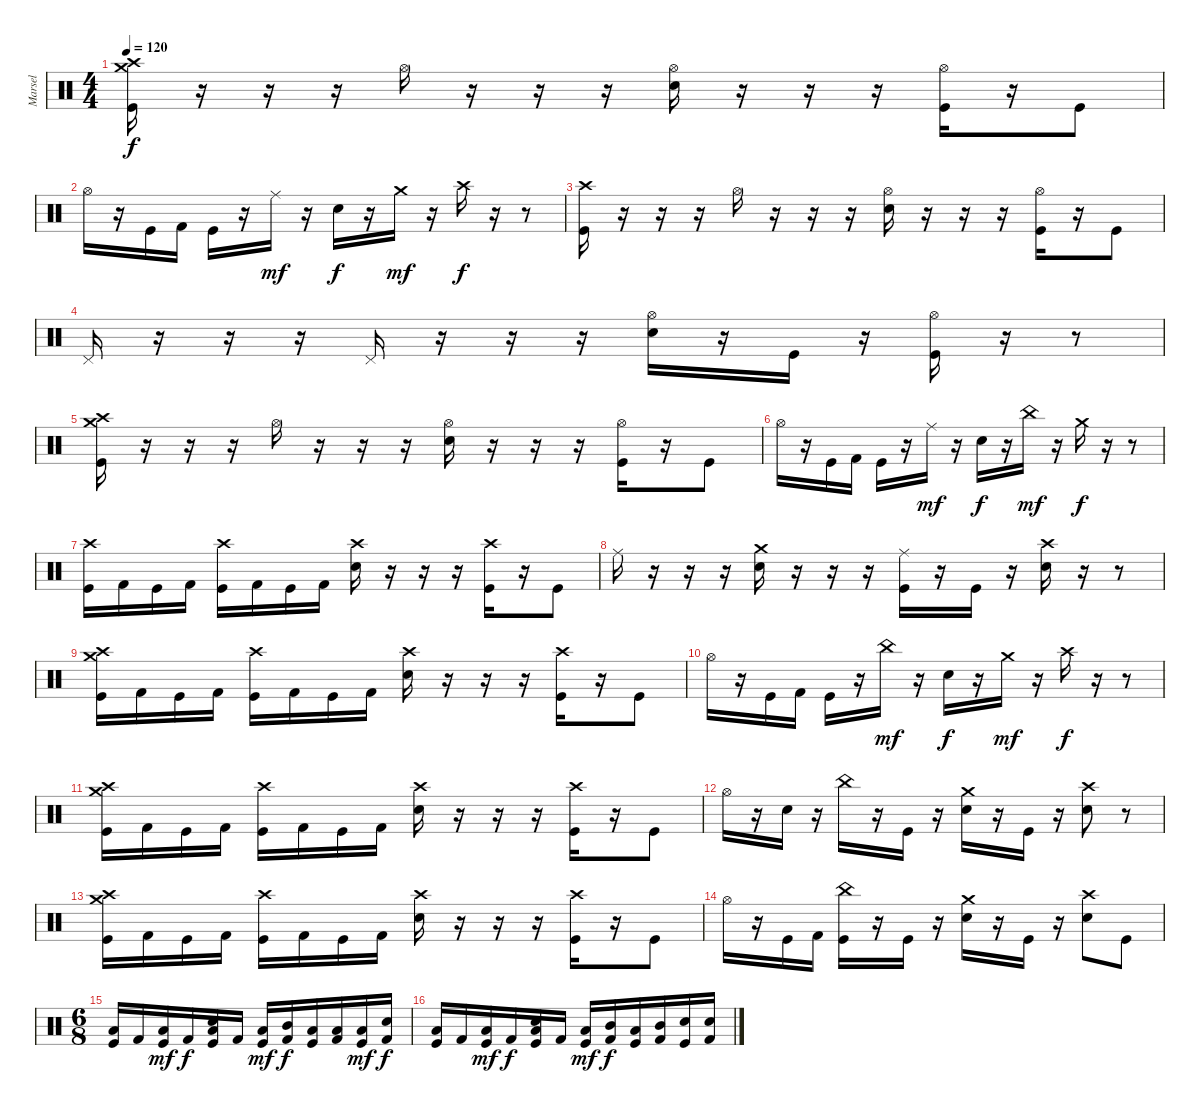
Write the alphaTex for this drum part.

\track ("Marsel" "Marsel") {instrument percussion}
\staff {score}
\articulation defaults
\ts (4 4)
\tempo 120
\clef neutral
\ks c
("Crash high (hit)" "Crash medium (hit)" "Kick (hit)").16{dy f} r.16 r.16 r.16 "Hi-Hat (open)".16 r.16 r.16 r.16 ("Hi-Hat (open)" "Snare (hit) 2").16 r.16 r.16 r.16 ("Hi-Hat (open)" "Kick (hit)").16 r.16 "Kick (hit)".8 |
"Hi-Hat (open)".16 r.16 "Kick (hit)".16 "Kick (hit) 2".16 "Kick (hit)".16 r.16 "Ride (middle)".16{dy mf} r.16 "Snare (hit) 2".16{dy f} r.16 "Crash medium (hit)".16{dy mf} r.16 "Crash high (hit)".16{dy f} r.16 r.8 |
("Crash high (hit)" "Kick (hit)").16 r.16 r.16 r.16 "Hi-Hat (open)".16 r.16 r.16 r.16 ("Hi-Hat (open)" "Snare (hit) 2").16 r.16 r.16 r.16 ("Hi-Hat (open)" "Kick (hit)").16 r.16 "Kick (hit)".8 |
"Pedal Hi-Hat (hit)".16 r.16 r.16 r.16 "Pedal Hi-Hat (hit)".16 r.16 r.16 r.16 ("Hi-Hat (open)" "Snare (hit) 2").16 r.16 "Kick (hit)".16 r.16 ("Hi-Hat (open)" "Kick (hit)").16 r.16 r.8 |
("Crash high (hit)" "Crash medium (hit)" "Kick (hit)").16 r.16 r.16 r.16 "Hi-Hat (open)".16 r.16 r.16 r.16 ("Hi-Hat (open)" "Snare (hit) 2").16 r.16 r.16 r.16 ("Hi-Hat (open)" "Kick (hit)").16 r.16 "Kick (hit)".8 |
"Hi-Hat (open)".16 r.16 "Kick (hit)".16 "Kick (hit) 2".16 "Kick (hit)".16 r.16 "Ride (middle)".16{dy mf} r.16 "Snare (hit) 2".16{dy f} r.16 "China (hit)".16{dy mf} r.16 "Crash medium (hit)".16{dy f} r.16 r.8 |
("Crash high (hit)" "Kick (hit)").16 "Kick (hit) 2".16 "Kick (hit)".16 "Kick (hit) 2".16 ("Crash high (hit)" "Kick (hit)").16 "Kick (hit) 2".16 "Kick (hit)".16 "Kick (hit) 2".16 ("Crash high (hit)" "Snare (hit) 2").16 r.16 r.16 r.16 ("Crash high (hit)" "Kick (hit)").16 r.16 "Kick (hit)".8 |
"Ride (middle)".16 r.16 r.16 r.16 ("Crash medium (hit)" "Snare (hit) 2").16 r.16 r.16 r.16 ("Ride (middle)" "Kick (hit)").16 r.16 "Kick (hit)".16 r.16 ("Crash high (hit)" "Snare (hit) 2").16 r.16 r.8 |
("Crash medium (hit)" "Crash high (hit)" "Kick (hit)").16 "Kick (hit) 2".16 "Kick (hit)".16 "Kick (hit) 2".16 ("Crash high (hit)" "Kick (hit)").16 "Kick (hit) 2".16 "Kick (hit)".16 "Kick (hit) 2".16 ("Crash high (hit)" "Snare (hit) 2").16 r.16 r.16 r.16 ("Crash high (hit)" "Kick (hit)").16 r.16 "Kick (hit)".8 |
"Hi-Hat (open)".16 r.16 "Kick (hit)".16 "Kick (hit) 2".16 "Kick (hit)".16 r.16 "China (hit)".16{dy mf} r.16 "Snare (hit) 2".16{dy f} r.16 "Crash medium (hit)".16{dy mf} r.16 "Crash high (hit)".16{dy f} r.16 r.8 |
("Crash medium (hit)" "Crash high (hit)" "Kick (hit)").16 "Kick (hit) 2".16 "Kick (hit)".16 "Kick (hit) 2".16 ("Crash high (hit)" "Kick (hit)").16 "Kick (hit) 2".16 "Kick (hit)".16 "Kick (hit) 2".16 ("Crash high (hit)" "Snare (hit) 2").16 r.16 r.16 r.16 ("Crash high (hit)" "Kick (hit)").16 r.16 "Kick (hit)".8 |
"Hi-Hat (open)".16 r.16 "Snare (hit) 2".16 r.16 "China (hit)".16 r.16 "Kick (hit)".16 r.16 ("Crash medium (hit)" "Snare (hit) 2").16 r.16 "Kick (hit)".16 r.16 ("Crash high (hit)" "Snare (hit) 2").8 r.8 |
("Crash medium (hit)" "Crash high (hit)" "Kick (hit)").16 "Kick (hit) 2".16 "Kick (hit)".16 "Kick (hit) 2".16 ("Crash high (hit)" "Kick (hit)").16 "Kick (hit) 2".16 "Kick (hit)".16 "Kick (hit) 2".16 ("Crash high (hit)" "Snare (hit) 2").16 r.16 r.16 r.16 ("Crash high (hit)" "Kick (hit)").16 r.16 "Kick (hit)".8 |
"Hi-Hat (open)".16 r.16 "Kick (hit)".16 "Kick (hit) 2".16 ("China (hit)" "Kick (hit)").16 r.16 "Kick (hit)".16 r.16 ("Crash medium (hit)" "Snare (hit) 2").16 r.16 "Kick (hit)".16 r.16 ("Crash high (hit)" "Snare (hit) 2").8 "Kick (hit)".8 |
\ts (6 8)
("Low Floor Tom (hit)" "Kick (hit)").16 "Kick (hit) 2".16 ("Low Floor Tom (hit)" "Kick (hit)").16{dy mf} "Kick (hit) 2".16{dy f} ("Snare (hit) 2" "Low Floor Tom (hit)" "Kick (hit)").16 "Kick (hit) 2".16 ("Low Floor Tom (hit)" "Kick (hit)").16{dy mf} ("Mid Tom (hit)" "Kick (hit) 2").16{dy f} ("Low Floor Tom (hit)" "Kick (hit)").16 ("Low Tom (hit)" "Kick (hit) 2").16 ("Low Floor Tom (hit)" "Kick (hit)").16{dy mf} ("Snare (hit) 2" "Kick (hit) 2").16{dy f} |
("Low Floor Tom (hit)" "Kick (hit)").16 "Kick (hit) 2".16 ("Low Floor Tom (hit)" "Kick (hit)").16{dy mf} "Kick (hit) 2".16{dy f} ("Snare (hit) 2" "Low Floor Tom (hit)" "Kick (hit)").16 "Kick (hit) 2".16 ("Low Floor Tom (hit)" "Kick (hit)").16{dy mf} ("Mid Tom (hit)" "Kick (hit) 2").16{dy f} ("Low Floor Tom (hit)" "Kick (hit)").16 ("Mid Tom (hit)" "Kick (hit) 2").16 ("Snare (hit) 2" "Kick (hit)").16 ("Snare (hit) 2" "Kick (hit) 2").16
